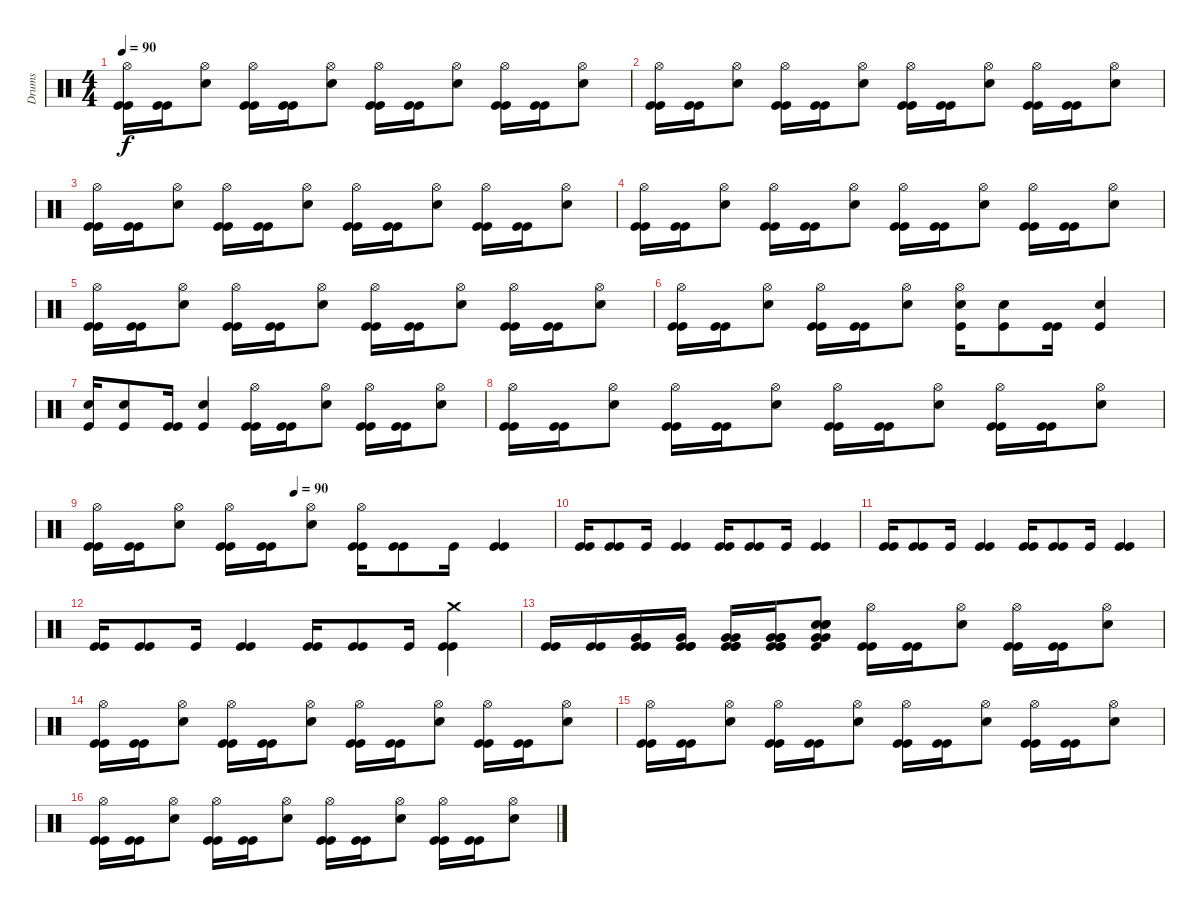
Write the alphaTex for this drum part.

\track ("Drums" "Drums") {instrument percussion}
\staff {score}
\articulation defaults
\ts (4 4)
\tempo 90
\clef neutral
\ks c
("Hi-Hat (open)" "Kick (hit)" "Kick (hit)").16{dy f} ("Kick (hit)" "Kick (hit)").16 ("Hi-Hat (open)" "Electric Snare (hit)").8 ("Hi-Hat (open)" "Kick (hit)" "Kick (hit)").16 ("Kick (hit)" "Kick (hit)").16 ("Hi-Hat (open)" "Electric Snare (hit)").8 ("Hi-Hat (open)" "Kick (hit)" "Kick (hit)").16 ("Kick (hit)" "Kick (hit)").16 ("Hi-Hat (open)" "Electric Snare (hit)").8 ("Hi-Hat (open)" "Kick (hit)" "Kick (hit)").16 ("Kick (hit)" "Kick (hit)").16 ("Hi-Hat (open)" "Electric Snare (hit)").8 |
("Hi-Hat (open)" "Kick (hit)" "Kick (hit)").16 ("Kick (hit)" "Kick (hit)").16 ("Hi-Hat (open)" "Electric Snare (hit)").8 ("Hi-Hat (open)" "Kick (hit)" "Kick (hit)").16 ("Kick (hit)" "Kick (hit)").16 ("Hi-Hat (open)" "Electric Snare (hit)").8 ("Hi-Hat (open)" "Kick (hit)" "Kick (hit)").16 ("Kick (hit)" "Kick (hit)").16 ("Hi-Hat (open)" "Electric Snare (hit)").8 ("Hi-Hat (open)" "Kick (hit)" "Kick (hit)").16 ("Kick (hit)" "Kick (hit)").16 ("Hi-Hat (open)" "Electric Snare (hit)").8 |
("Hi-Hat (open)" "Kick (hit)" "Kick (hit)").16 ("Kick (hit)" "Kick (hit)").16 ("Hi-Hat (open)" "Electric Snare (hit)").8 ("Hi-Hat (open)" "Kick (hit)" "Kick (hit)").16 ("Kick (hit)" "Kick (hit)").16 ("Hi-Hat (open)" "Electric Snare (hit)").8 ("Hi-Hat (open)" "Kick (hit)" "Kick (hit)").16 ("Kick (hit)" "Kick (hit)").16 ("Hi-Hat (open)" "Electric Snare (hit)").8 ("Hi-Hat (open)" "Kick (hit)" "Kick (hit)").16 ("Kick (hit)" "Kick (hit)").16 ("Hi-Hat (open)" "Electric Snare (hit)").8 |
("Hi-Hat (open)" "Kick (hit)" "Kick (hit)").16 ("Kick (hit)" "Kick (hit)").16 ("Hi-Hat (open)" "Electric Snare (hit)").8 ("Hi-Hat (open)" "Kick (hit)" "Kick (hit)").16 ("Kick (hit)" "Kick (hit)").16 ("Hi-Hat (open)" "Electric Snare (hit)").8 ("Hi-Hat (open)" "Kick (hit)" "Kick (hit)").16 ("Kick (hit)" "Kick (hit)").16 ("Hi-Hat (open)" "Electric Snare (hit)").8 ("Hi-Hat (open)" "Kick (hit)" "Kick (hit)").16 ("Kick (hit)" "Kick (hit)").16 ("Hi-Hat (open)" "Electric Snare (hit)").8 |
("Hi-Hat (open)" "Kick (hit)" "Kick (hit)").16 ("Kick (hit)" "Kick (hit)").16 ("Hi-Hat (open)" "Electric Snare (hit)").8 ("Hi-Hat (open)" "Kick (hit)" "Kick (hit)").16 ("Kick (hit)" "Kick (hit)").16 ("Hi-Hat (open)" "Electric Snare (hit)").8 ("Hi-Hat (open)" "Kick (hit)" "Kick (hit)").16 ("Kick (hit)" "Kick (hit)").16 ("Hi-Hat (open)" "Electric Snare (hit)").8 ("Hi-Hat (open)" "Kick (hit)" "Kick (hit)").16 ("Kick (hit)" "Kick (hit)").16 ("Hi-Hat (open)" "Electric Snare (hit)").8 |
("Hi-Hat (open)" "Kick (hit)" "Kick (hit)").16 ("Kick (hit)" "Kick (hit)").16 ("Hi-Hat (open)" "Electric Snare (hit)").8 ("Hi-Hat (open)" "Kick (hit)" "Kick (hit)").16 ("Kick (hit)" "Kick (hit)").16 ("Hi-Hat (open)" "Electric Snare (hit)").8 ("Hi-Hat (open)" "Electric Snare (hit)" "Kick (hit)").16 ("Electric Snare (hit)" "Kick (hit)").8 ("Kick (hit)" "Kick (hit)").16 ("Electric Snare (hit)" "Kick (hit)").4 |
("Electric Snare (hit)" "Kick (hit)").16 ("Electric Snare (hit)" "Kick (hit)").8 ("Kick (hit)" "Kick (hit)").16 ("Electric Snare (hit)" "Kick (hit)").4 ("Hi-Hat (open)" "Kick (hit)" "Kick (hit)").16 ("Kick (hit)" "Kick (hit)").16 ("Hi-Hat (open)" "Electric Snare (hit)").8 ("Hi-Hat (open)" "Kick (hit)" "Kick (hit)").16 ("Kick (hit)" "Kick (hit)").16 ("Hi-Hat (open)" "Electric Snare (hit)").8 |
("Hi-Hat (open)" "Kick (hit)" "Kick (hit)").16 ("Kick (hit)" "Kick (hit)").16 ("Hi-Hat (open)" "Electric Snare (hit)").8 ("Hi-Hat (open)" "Kick (hit)" "Kick (hit)").16 ("Kick (hit)" "Kick (hit)").16 ("Hi-Hat (open)" "Electric Snare (hit)").8 ("Hi-Hat (open)" "Kick (hit)" "Kick (hit)").16 ("Kick (hit)" "Kick (hit)").16 ("Hi-Hat (open)" "Electric Snare (hit)").8 ("Hi-Hat (open)" "Kick (hit)" "Kick (hit)").16 ("Kick (hit)" "Kick (hit)").16 ("Hi-Hat (open)" "Electric Snare (hit)").8 |
\tempo (90 0.4375)
("Hi-Hat (open)" "Kick (hit)" "Kick (hit)").16 ("Kick (hit)" "Kick (hit)").16 ("Hi-Hat (open)" "Electric Snare (hit)").8 ("Hi-Hat (open)" "Kick (hit)" "Kick (hit)").16 ("Kick (hit)" "Kick (hit)").16 ("Hi-Hat (open)" "Electric Snare (hit)").8 ("Hi-Hat (open)" "Kick (hit)" "Kick (hit)").16 ("Kick (hit)" "Kick (hit)").8 "Kick (hit)".16 ("Kick (hit)" "Kick (hit)").4 |
("Kick (hit)" "Kick (hit)").16 ("Kick (hit)" "Kick (hit)").8 "Kick (hit)".16 ("Kick (hit)" "Kick (hit)").4 ("Kick (hit)" "Kick (hit)").16 ("Kick (hit)" "Kick (hit)").8 "Kick (hit)".16 ("Kick (hit)" "Kick (hit)").4 |
("Kick (hit)" "Kick (hit)").16 ("Kick (hit)" "Kick (hit)").8 "Kick (hit)".16 ("Kick (hit)" "Kick (hit)").4 ("Kick (hit)" "Kick (hit)").16 ("Kick (hit)" "Kick (hit)").8 "Kick (hit)".16 ("Kick (hit)" "Kick (hit)").4 |
("Kick (hit)" "Kick (hit)").16 ("Kick (hit)" "Kick (hit)").8 "Kick (hit)".16 ("Kick (hit)" "Kick (hit)").4 ("Kick (hit)" "Kick (hit)").16 ("Kick (hit)" "Kick (hit)").8 "Kick (hit)".16 ("Crash medium (hit)" "Kick (hit)" "Kick (hit)").4 |
("Kick (hit)" "Kick (hit)").16 ("Kick (hit)" "Kick (hit)").16 ("Very Low Tom (hit)" "Kick (hit)" "Kick (hit)" "Kick (hit)").16 ("Very Low Tom (hit)" "Kick (hit)" "Kick (hit)" "Kick (hit)").16 ("Very Low Tom (hit)" "Very Low Tom (hit)" "Kick (hit)" "Kick (hit)" "Kick (hit)").16 ("Very Low Tom (hit)" "Very Low Tom (hit)" "Very Low Tom (hit)" "Kick (hit)" "Kick (hit)" "Kick (hit)").16 ("Very Low Tom (hit)" "Very Low Tom (hit)" "Kick (hit)" "Electric Snare (hit)" "Electric Snare (hit)" "Electric Snare (hit)").8 ("Hi-Hat (open)" "Kick (hit)" "Kick (hit)").16 ("Kick (hit)" "Kick (hit)").16 ("Hi-Hat (open)" "Electric Snare (hit)").8 ("Hi-Hat (open)" "Kick (hit)" "Kick (hit)").16 ("Kick (hit)" "Kick (hit)").16 ("Hi-Hat (open)" "Electric Snare (hit)").8 |
("Hi-Hat (open)" "Kick (hit)" "Kick (hit)").16 ("Kick (hit)" "Kick (hit)").16 ("Hi-Hat (open)" "Electric Snare (hit)").8 ("Hi-Hat (open)" "Kick (hit)" "Kick (hit)").16 ("Kick (hit)" "Kick (hit)").16 ("Hi-Hat (open)" "Electric Snare (hit)").8 ("Hi-Hat (open)" "Kick (hit)" "Kick (hit)").16 ("Kick (hit)" "Kick (hit)").16 ("Hi-Hat (open)" "Electric Snare (hit)").8 ("Hi-Hat (open)" "Kick (hit)" "Kick (hit)").16 ("Kick (hit)" "Kick (hit)").16 ("Hi-Hat (open)" "Electric Snare (hit)").8 |
("Hi-Hat (open)" "Kick (hit)" "Kick (hit)").16 ("Kick (hit)" "Kick (hit)").16 ("Hi-Hat (open)" "Electric Snare (hit)").8 ("Hi-Hat (open)" "Kick (hit)" "Kick (hit)").16 ("Kick (hit)" "Kick (hit)").16 ("Hi-Hat (open)" "Electric Snare (hit)").8 ("Hi-Hat (open)" "Kick (hit)" "Kick (hit)").16 ("Kick (hit)" "Kick (hit)").16 ("Hi-Hat (open)" "Electric Snare (hit)").8 ("Hi-Hat (open)" "Kick (hit)" "Kick (hit)").16 ("Kick (hit)" "Kick (hit)").16 ("Hi-Hat (open)" "Electric Snare (hit)").8 |
("Hi-Hat (open)" "Kick (hit)" "Kick (hit)").16 ("Kick (hit)" "Kick (hit)").16 ("Hi-Hat (open)" "Electric Snare (hit)").8 ("Hi-Hat (open)" "Kick (hit)" "Kick (hit)").16 ("Kick (hit)" "Kick (hit)").16 ("Hi-Hat (open)" "Electric Snare (hit)").8 ("Hi-Hat (open)" "Kick (hit)" "Kick (hit)").16 ("Kick (hit)" "Kick (hit)").16 ("Hi-Hat (open)" "Electric Snare (hit)").8 ("Hi-Hat (open)" "Kick (hit)" "Kick (hit)").16 ("Kick (hit)" "Kick (hit)").16 ("Hi-Hat (open)" "Electric Snare (hit)").8
